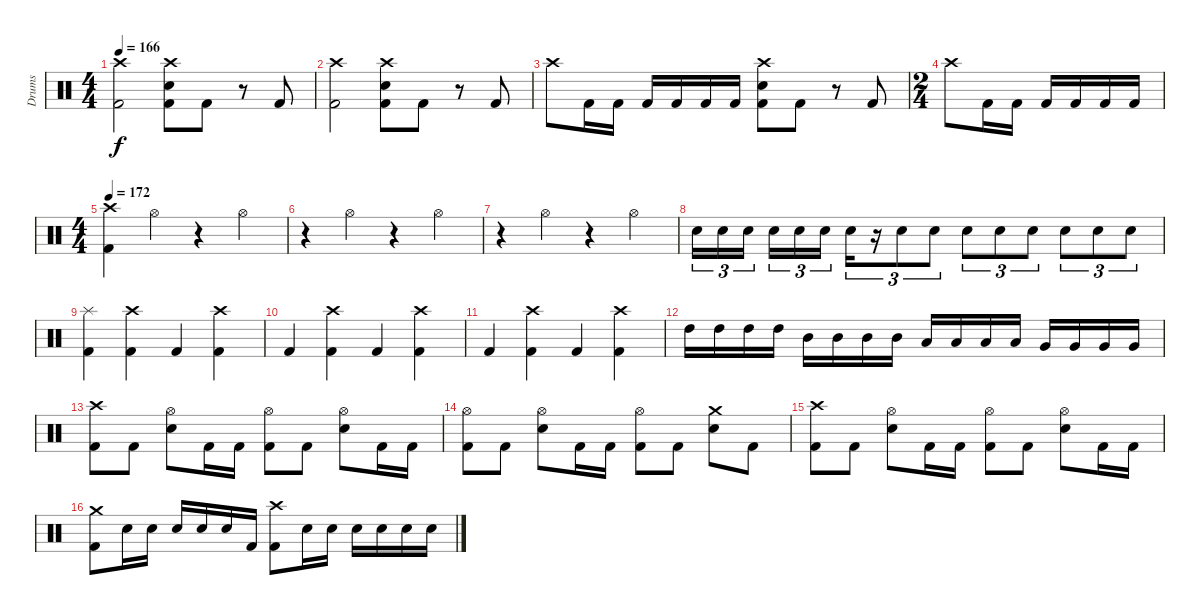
\track ("Drums" "Drums") {instrument percussion}
\staff {score}
\articulation defaults
\ts (4 4)
\tempo 166
\clef neutral
\ks c
("Crash high (hit)" "Kick (hit) 2").2{dy f} ("Crash high (hit)" "Snare (hit) 2" "Kick (hit) 2").8 "Kick (hit) 2".8 r.8 "Kick (hit) 2".8 |
("Crash high (hit)" "Kick (hit) 2").2 ("Crash high (hit)" "Snare (hit) 2" "Kick (hit) 2").8 "Kick (hit) 2".8 r.8 "Kick (hit) 2".8 |
"Crash high (hit)".8 "Kick (hit) 2".16 "Kick (hit) 2".16 "Kick (hit) 2".16 "Kick (hit) 2".16 "Kick (hit) 2".16 "Kick (hit) 2".16 ("Crash high (hit)" "Snare (hit) 2" "Kick (hit) 2").8 "Kick (hit) 2".8 r.8 "Kick (hit) 2".8 |
\ts (2 4)
"Crash high (hit)".8 "Kick (hit) 2".16 "Kick (hit) 2".16 "Kick (hit) 2".16 "Kick (hit) 2".16 "Kick (hit) 2".16 "Kick (hit) 2".16 |
\ts (4 4)
\tempo 172
("Crash high (hit)" "Kick (hit) 2").4 "Hi-Hat (open)".4 r.4 "Hi-Hat (open)".4 |
r.4 "Hi-Hat (open)".4 r.4 "Hi-Hat (open)".4 |
r.4 "Hi-Hat (open)".4 r.4 "Hi-Hat (open)".4 |
"Electric Snare (hit)".16{tu (3 2)} "Electric Snare (hit)".16{tu (3 2)} "Electric Snare (hit)".16{tu (3 2) beam splitsecondary} "Electric Snare (hit)".16{tu (3 2)} "Electric Snare (hit)".16{tu (3 2)} "Electric Snare (hit)".16{tu (3 2)} "Electric Snare (hit)".16{tu (3 2)} r.16{tu (3 2)} "Electric Snare (hit)".8{tu (3 2)} "Electric Snare (hit)".8{tu (3 2)} "Electric Snare (hit)".8{tu (3 2)} "Electric Snare (hit)".8{tu (3 2)} "Electric Snare (hit)".8{tu (3 2)} "Electric Snare (hit)".8{tu (3 2)} "Electric Snare (hit)".8{tu (3 2)} "Electric Snare (hit)".8{tu (3 2)} |
("Splash (hit)" "Kick (hit) 2").4 ("Crash high (hit)" "Kick (hit) 2").4 "Kick (hit) 2".4 ("Crash high (hit)" "Kick (hit) 2").4 |
"Kick (hit) 2".4 ("Crash high (hit)" "Kick (hit) 2").4 "Kick (hit) 2".4 ("Crash high (hit)" "Kick (hit) 2").4 |
"Kick (hit) 2".4 ("Crash high (hit)" "Kick (hit) 2").4 "Kick (hit) 2".4 ("Crash high (hit)" "Kick (hit) 2").4 |
"High Tom (hit)".16 "High Tom (hit)".16 "High Tom (hit)".16 "High Tom (hit)".16 "Mid Tom (hit)".16 "Mid Tom (hit)".16 "Mid Tom (hit)".16 "Mid Tom (hit)".16 "Low Tom (hit)".16 "Low Tom (hit)".16 "Low Tom (hit)".16 "Low Tom (hit)".16 "Very Low Tom (hit)".16 "Very Low Tom (hit)".16 "Very Low Tom (hit)".16 "Very Low Tom (hit)".16 |
("Crash high (hit)" "Kick (hit) 2").8 "Kick (hit) 2".8 ("Hi-Hat (open)" "Electric Snare (hit)").8 "Kick (hit) 2".16 "Kick (hit) 2".16 ("Hi-Hat (open)" "Kick (hit) 2").8 "Kick (hit) 2".8 ("Hi-Hat (open)" "Electric Snare (hit)").8 "Kick (hit) 2".16 "Kick (hit) 2".16 |
("Hi-Hat (open)" "Kick (hit) 2").8 "Kick (hit) 2".8 ("Hi-Hat (open)" "Electric Snare (hit)").8 "Kick (hit) 2".16 "Kick (hit) 2".16 ("Hi-Hat (open)" "Kick (hit) 2").8 "Kick (hit) 2".8 ("Crash medium (hit)" "Electric Snare (hit)").8 "Kick (hit) 2".8 |
("Crash high (hit)" "Kick (hit) 2").8 "Kick (hit) 2".8 ("Hi-Hat (open)" "Electric Snare (hit)").8 "Kick (hit) 2".16 "Kick (hit) 2".16 ("Hi-Hat (open)" "Kick (hit) 2").8 "Kick (hit) 2".8 ("Hi-Hat (open)" "Electric Snare (hit)").8 "Kick (hit) 2".16 "Kick (hit) 2".16 |
("Crash medium (hit)" "Kick (hit) 2").8 "Electric Snare (hit)".16 "Electric Snare (hit)".16 "Electric Snare (hit)".16 "Electric Snare (hit)".16 "Electric Snare (hit)".16 "Kick (hit) 2".16 ("Crash high (hit)" "Kick (hit) 2").8 "Electric Snare (hit)".16 "Electric Snare (hit)".16 "Electric Snare (hit)".16 "Electric Snare (hit)".16 "Electric Snare (hit)".16 "Electric Snare (hit)".16
